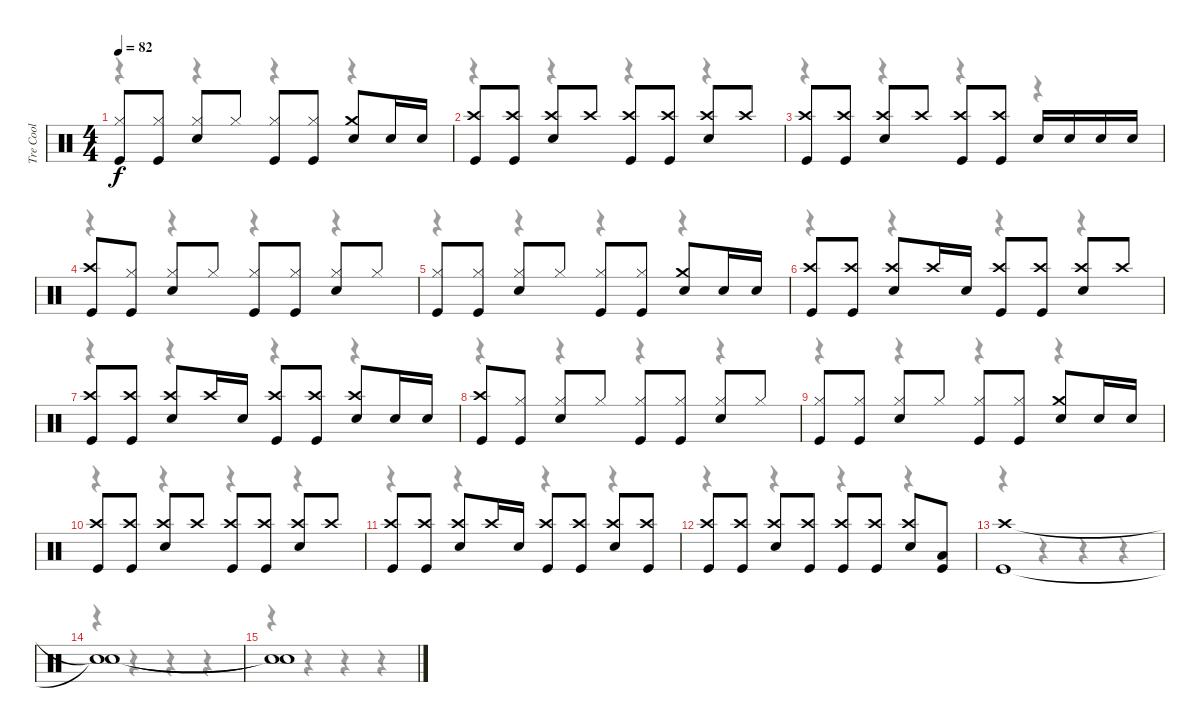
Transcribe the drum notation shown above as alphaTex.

\track ("Tre Cool" "Tre Cool") {instrument percussion}
\staff {score}
\articulation defaults
\voice
\ts (4 4)
\tempo 82
\clef neutral
\ks c
("Hi-Hat (closed)" "Kick (hit)").8{dy f} ("Hi-Hat (closed)" "Kick (hit)").8 ("Hi-Hat (closed)" "Snare (hit) 2").8 "Hi-Hat (closed)".8 ("Hi-Hat (closed)" "Kick (hit)").8 ("Hi-Hat (closed)" "Kick (hit)").8 ("Crash medium (hit)" "Snare (hit) 2").8 "Snare (hit) 2".16 "Snare (hit) 2".16 |
("Crash high (hit)" "Kick (hit)").8 ("Crash high (hit)" "Kick (hit)").8 ("Crash high (hit)" "Snare (hit) 2").8 "Crash high (hit)".8 ("Crash high (hit)" "Kick (hit)").8 ("Crash high (hit)" "Kick (hit)").8 ("Crash high (hit)" "Snare (hit) 2").8 "Crash high (hit)".8 |
("Crash high (hit)" "Kick (hit)").8 ("Crash high (hit)" "Kick (hit)").8 ("Crash high (hit)" "Snare (hit) 2").8 "Crash high (hit)".8 ("Crash high (hit)" "Kick (hit)").8 ("Crash high (hit)" "Kick (hit)").8 "Snare (hit) 2".16 "Snare (hit) 2".16 "Snare (hit) 2".16 "Snare (hit) 2".16 |
("Crash high (hit)" "Kick (hit)").8 ("Hi-Hat (closed)" "Kick (hit)").8 ("Hi-Hat (closed)" "Snare (hit) 2").8 "Hi-Hat (closed)".8 ("Hi-Hat (closed)" "Kick (hit)").8 ("Hi-Hat (closed)" "Kick (hit)").8 ("Hi-Hat (closed)" "Snare (hit) 2").8 "Hi-Hat (closed)".8 |
("Hi-Hat (closed)" "Kick (hit)").8 ("Hi-Hat (closed)" "Kick (hit)").8 ("Hi-Hat (closed)" "Snare (hit) 2").8 "Hi-Hat (closed)".8 ("Hi-Hat (closed)" "Kick (hit)").8 ("Hi-Hat (closed)" "Kick (hit)").8 ("Crash medium (hit)" "Snare (hit) 2").8 "Snare (hit) 2".16 "Snare (hit) 2".16 |
("Crash high (hit)" "Kick (hit)").8 ("Crash high (hit)" "Kick (hit)").8 ("Crash high (hit)" "Snare (hit) 2").8 "Crash high (hit)".16 "Snare (hit) 2".16 ("Crash high (hit)" "Kick (hit)").8 ("Crash high (hit)" "Kick (hit)").8 ("Crash high (hit)" "Snare (hit) 2").8 "Crash high (hit)".8 |
("Crash high (hit)" "Kick (hit)").8 ("Crash high (hit)" "Kick (hit)").8 ("Crash high (hit)" "Snare (hit) 2").8 "Crash high (hit)".16 "Snare (hit) 2".16 ("Crash high (hit)" "Kick (hit)").8 ("Crash high (hit)" "Kick (hit)").8 ("Crash high (hit)" "Snare (hit) 2").8 "Snare (hit) 2".16 "Snare (hit) 2".16 |
("Crash high (hit)" "Kick (hit)").8 ("Hi-Hat (closed)" "Kick (hit)").8 ("Hi-Hat (closed)" "Snare (hit) 2").8 "Hi-Hat (closed)".8 ("Hi-Hat (closed)" "Kick (hit)").8 ("Hi-Hat (closed)" "Kick (hit)").8 ("Hi-Hat (closed)" "Snare (hit) 2").8 "Hi-Hat (closed)".8 |
("Hi-Hat (closed)" "Kick (hit)").8 ("Hi-Hat (closed)" "Kick (hit)").8 ("Hi-Hat (closed)" "Snare (hit) 2").8 "Hi-Hat (closed)".8 ("Hi-Hat (closed)" "Kick (hit)").8 ("Hi-Hat (closed)" "Kick (hit)").8 ("Crash medium (hit)" "Snare (hit) 2").8 "Snare (hit) 2".16 "Snare (hit) 2".16 |
("Crash high (hit)" "Kick (hit)").8 ("Crash high (hit)" "Kick (hit)").8 ("Crash high (hit)" "Snare (hit) 2").8 "Crash high (hit)".8 ("Crash high (hit)" "Kick (hit)").8 ("Crash high (hit)" "Kick (hit)").8 ("Crash high (hit)" "Snare (hit) 2").8 "Crash high (hit)".8 |
("Crash high (hit)" "Kick (hit)").8 ("Crash high (hit)" "Kick (hit)").8 ("Crash high (hit)" "Snare (hit) 2").8 "Crash high (hit)".16 "Snare (hit) 2".16 ("Crash high (hit)" "Kick (hit)").8 ("Crash high (hit)" "Kick (hit)").8 ("Crash high (hit)" "Snare (hit) 2").8 ("Crash high (hit)" "Kick (hit)").8 |
("Crash high (hit)" "Kick (hit)").8 ("Crash high (hit)" "Kick (hit)").8 ("Crash high (hit)" "Snare (hit) 2").8 ("Crash high (hit)" "Kick (hit)").8 ("Crash high (hit)" "Kick (hit)").8 ("Crash high (hit)" "Kick (hit)").8 ("Crash high (hit)" "Snare (hit) 2").8 ("Low Floor Tom (hit)" "Kick (hit)").8 |
("Crash high (hit)" "Kick (hit)").1 |
("Snare (hit)"{t} "Snare (hit)"{t}).1 |
("Snare (hit)"{t} "Snare (hit)"{t}).1
\voice
\clef neutral
\ottava regular
\simile none
\ks c
r.4{dy f} r.4 r.4 r.4 |
r.4 r.4 r.4 r.4 |
r.4 r.4 r.4 r.4 |
r.4 r.4 r.4 r.4 |
r.4 r.4 r.4 r.4 |
r.4 r.4 r.4 r.4 |
r.4 r.4 r.4 r.4 |
r.4 r.4 r.4 r.4 |
r.4 r.4 r.4 r.4 |
r.4 r.4 r.4 r.4 |
r.4 r.4 r.4 r.4 |
r.4 r.4 r.4 r.4 |
r.4 r.4 r.4 r.4 |
r.4 r.4 r.4 r.4 |
r.4 r.4 r.4 r.4
